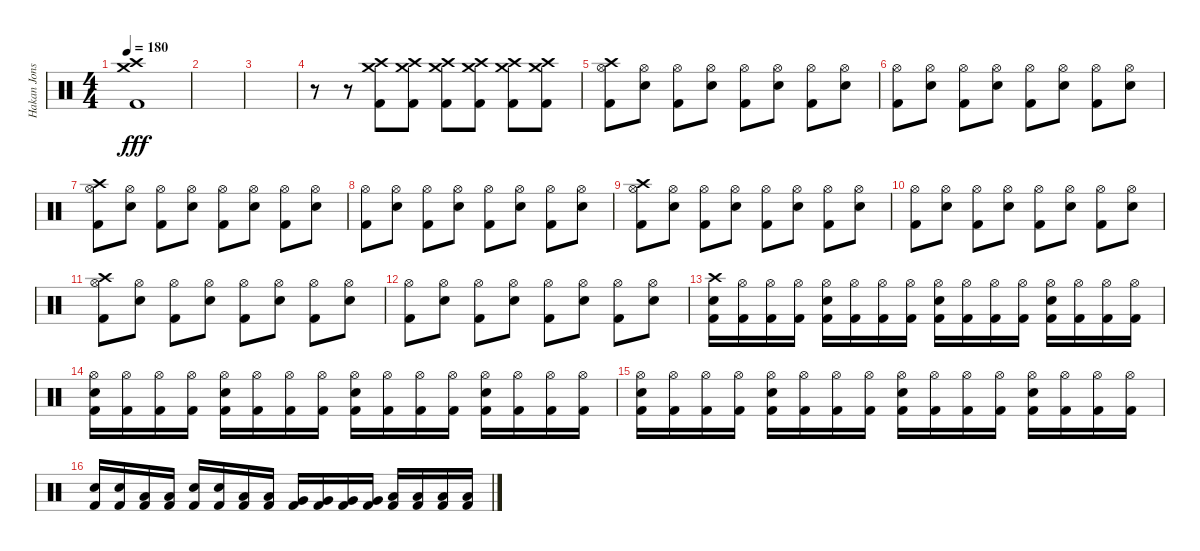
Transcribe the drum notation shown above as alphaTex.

\track ("Hakan Jonsson" "Hakan Jons") {instrument percussion}
\staff {score}
\articulation defaults
\ts (4 4)
\tempo 180
\clef neutral
\ks c
("Crash high (hit)" "Crash medium (hit)" "Kick (hit) 2").1{dy fff} |
|
|
r.8 r.8 ("Crash high (hit)" "Crash medium (hit)" "Kick (hit) 2").8 ("Crash high (hit)" "Crash medium (hit)" "Kick (hit) 2").8 ("Crash high (hit)" "Crash medium (hit)" "Kick (hit) 2").8 ("Crash high (hit)" "Crash medium (hit)" "Kick (hit) 2").8 ("Crash high (hit)" "Crash medium (hit)" "Kick (hit) 2").8 ("Crash high (hit)" "Crash medium (hit)" "Kick (hit) 2").8 |
("Crash high (hit)" "Hi-Hat (open)" "Kick (hit) 2").8 ("Hi-Hat (open)" "Electric Snare (hit)").8 ("Hi-Hat (open)" "Kick (hit) 2").8 ("Hi-Hat (open)" "Electric Snare (hit)").8 ("Hi-Hat (open)" "Kick (hit) 2").8 ("Hi-Hat (open)" "Electric Snare (hit)").8 ("Hi-Hat (open)" "Kick (hit) 2").8 ("Hi-Hat (open)" "Electric Snare (hit)").8 |
("Hi-Hat (open)" "Kick (hit) 2").8 ("Hi-Hat (open)" "Electric Snare (hit)").8 ("Hi-Hat (open)" "Kick (hit) 2").8 ("Hi-Hat (open)" "Electric Snare (hit)").8 ("Hi-Hat (open)" "Kick (hit) 2").8 ("Hi-Hat (open)" "Electric Snare (hit)").8 ("Hi-Hat (open)" "Kick (hit) 2").8 ("Hi-Hat (open)" "Electric Snare (hit)").8 |
("Crash high (hit)" "Hi-Hat (open)" "Kick (hit) 2").8 ("Hi-Hat (open)" "Electric Snare (hit)").8 ("Hi-Hat (open)" "Kick (hit) 2").8 ("Hi-Hat (open)" "Electric Snare (hit)").8 ("Hi-Hat (open)" "Kick (hit) 2").8 ("Hi-Hat (open)" "Electric Snare (hit)").8 ("Hi-Hat (open)" "Kick (hit) 2").8 ("Hi-Hat (open)" "Electric Snare (hit)").8 |
("Hi-Hat (open)" "Kick (hit) 2").8 ("Hi-Hat (open)" "Electric Snare (hit)").8 ("Hi-Hat (open)" "Kick (hit) 2").8 ("Hi-Hat (open)" "Electric Snare (hit)").8 ("Hi-Hat (open)" "Kick (hit) 2").8 ("Hi-Hat (open)" "Electric Snare (hit)").8 ("Hi-Hat (open)" "Kick (hit) 2").8 ("Hi-Hat (open)" "Electric Snare (hit)").8 |
("Crash high (hit)" "Hi-Hat (open)" "Kick (hit) 2").8 ("Hi-Hat (open)" "Electric Snare (hit)").8 ("Hi-Hat (open)" "Kick (hit) 2").8 ("Hi-Hat (open)" "Electric Snare (hit)").8 ("Hi-Hat (open)" "Kick (hit) 2").8 ("Hi-Hat (open)" "Electric Snare (hit)").8 ("Hi-Hat (open)" "Kick (hit) 2").8 ("Hi-Hat (open)" "Electric Snare (hit)").8 |
("Hi-Hat (open)" "Kick (hit) 2").8 ("Hi-Hat (open)" "Electric Snare (hit)").8 ("Hi-Hat (open)" "Kick (hit) 2").8 ("Hi-Hat (open)" "Electric Snare (hit)").8 ("Hi-Hat (open)" "Kick (hit) 2").8 ("Hi-Hat (open)" "Electric Snare (hit)").8 ("Hi-Hat (open)" "Kick (hit) 2").8 ("Hi-Hat (open)" "Electric Snare (hit)").8 |
("Crash high (hit)" "Hi-Hat (open)" "Kick (hit) 2").8 ("Hi-Hat (open)" "Electric Snare (hit)").8 ("Hi-Hat (open)" "Kick (hit) 2").8 ("Hi-Hat (open)" "Electric Snare (hit)").8 ("Hi-Hat (open)" "Kick (hit) 2").8 ("Hi-Hat (open)" "Electric Snare (hit)").8 ("Hi-Hat (open)" "Kick (hit) 2").8 ("Hi-Hat (open)" "Electric Snare (hit)").8 |
("Hi-Hat (open)" "Kick (hit) 2").8 ("Hi-Hat (open)" "Electric Snare (hit)").8 ("Hi-Hat (open)" "Kick (hit) 2").8 ("Hi-Hat (open)" "Electric Snare (hit)").8 ("Hi-Hat (open)" "Kick (hit) 2").8 ("Hi-Hat (open)" "Electric Snare (hit)").8 ("Hi-Hat (open)" "Kick (hit) 2").8 ("Hi-Hat (open)" "Electric Snare (hit)").8 |
("Crash high (hit)" "Electric Snare (hit)" "Kick (hit) 2").16 ("Hi-Hat (open)" "Kick (hit) 2").16 ("Hi-Hat (open)" "Kick (hit) 2").16 ("Hi-Hat (open)" "Kick (hit) 2").16 ("Hi-Hat (open)" "Electric Snare (hit)" "Kick (hit) 2").16 ("Hi-Hat (open)" "Kick (hit) 2").16 ("Hi-Hat (open)" "Kick (hit) 2").16 ("Hi-Hat (open)" "Kick (hit) 2").16 ("Hi-Hat (open)" "Electric Snare (hit)" "Kick (hit) 2").16 ("Hi-Hat (open)" "Kick (hit) 2").16 ("Hi-Hat (open)" "Kick (hit) 2").16 ("Hi-Hat (open)" "Kick (hit) 2").16 ("Hi-Hat (open)" "Electric Snare (hit)" "Kick (hit) 2").16 ("Hi-Hat (open)" "Kick (hit) 2").16 ("Hi-Hat (open)" "Kick (hit) 2").16 ("Hi-Hat (open)" "Kick (hit) 2").16 |
("Hi-Hat (open)" "Electric Snare (hit)" "Kick (hit) 2").16 ("Hi-Hat (open)" "Kick (hit) 2").16 ("Hi-Hat (open)" "Kick (hit) 2").16 ("Hi-Hat (open)" "Kick (hit) 2").16 ("Hi-Hat (open)" "Electric Snare (hit)" "Kick (hit) 2").16 ("Hi-Hat (open)" "Kick (hit) 2").16 ("Hi-Hat (open)" "Kick (hit) 2").16 ("Hi-Hat (open)" "Kick (hit) 2").16 ("Hi-Hat (open)" "Electric Snare (hit)" "Kick (hit) 2").16 ("Hi-Hat (open)" "Kick (hit) 2").16 ("Hi-Hat (open)" "Kick (hit) 2").16 ("Hi-Hat (open)" "Kick (hit) 2").16 ("Hi-Hat (open)" "Electric Snare (hit)" "Kick (hit) 2").16 ("Hi-Hat (open)" "Kick (hit) 2").16 ("Hi-Hat (open)" "Kick (hit) 2").16 ("Hi-Hat (open)" "Kick (hit) 2").16 |
("Hi-Hat (open)" "Electric Snare (hit)" "Kick (hit) 2").16 ("Hi-Hat (open)" "Kick (hit) 2").16 ("Hi-Hat (open)" "Kick (hit) 2").16 ("Hi-Hat (open)" "Kick (hit) 2").16 ("Hi-Hat (open)" "Electric Snare (hit)" "Kick (hit) 2").16 ("Hi-Hat (open)" "Kick (hit) 2").16 ("Hi-Hat (open)" "Kick (hit) 2").16 ("Hi-Hat (open)" "Kick (hit) 2").16 ("Hi-Hat (open)" "Electric Snare (hit)" "Kick (hit) 2").16 ("Hi-Hat (open)" "Kick (hit) 2").16 ("Hi-Hat (open)" "Kick (hit) 2").16 ("Hi-Hat (open)" "Kick (hit) 2").16 ("Hi-Hat (open)" "Electric Snare (hit)" "Kick (hit) 2").16 ("Hi-Hat (open)" "Kick (hit) 2").16 ("Hi-Hat (open)" "Kick (hit) 2").16 ("Hi-Hat (open)" "Kick (hit) 2").16 |
("Electric Snare (hit)" "Kick (hit) 2").16 ("Electric Snare (hit)" "Kick (hit) 2").16 ("Low Tom (hit)" "Kick (hit) 2").16 ("Low Tom (hit)" "Kick (hit) 2").16 ("Electric Snare (hit)" "Kick (hit) 2").16 ("Electric Snare (hit)" "Kick (hit) 2").16 ("Low Tom (hit)" "Kick (hit) 2").16 ("Low Tom (hit)" "Kick (hit) 2").16 ("Very Low Tom (hit)" "Kick (hit) 2").16 ("Very Low Tom (hit)" "Kick (hit) 2").16 ("Very Low Tom (hit)" "Kick (hit) 2").16 ("Very Low Tom (hit)" "Kick (hit) 2").16 ("Low Floor Tom (hit)" "Kick (hit) 2").16 ("Low Floor Tom (hit)" "Kick (hit) 2").16 ("Low Floor Tom (hit)" "Kick (hit) 2").16 ("Low Floor Tom (hit)" "Kick (hit) 2").16
